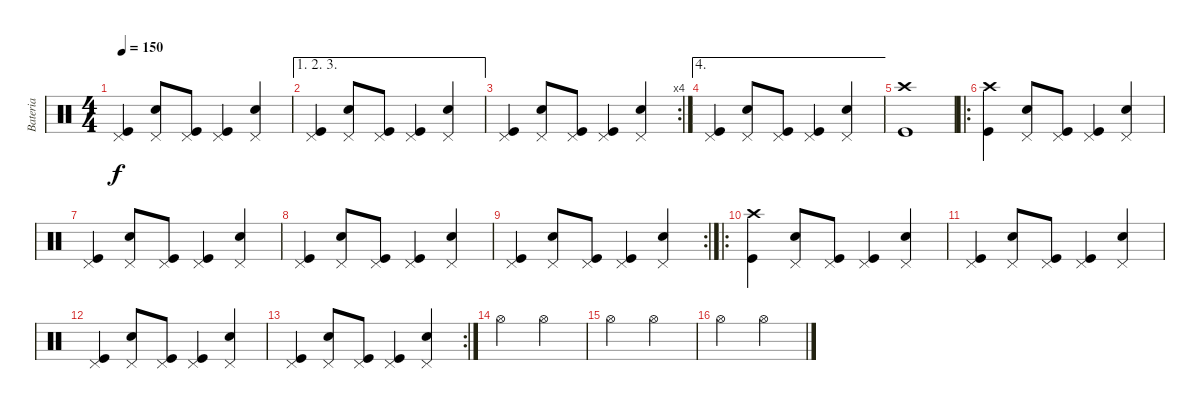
\track ("Bateria" "Bateria") {instrument percussion}
\staff {score}
\articulation defaults
\ts (4 4)
\tempo 150
\clef neutral
\ks c
("Pedal Hi-Hat (hit)" "Kick (hit)").4{dy f} ("Pedal Hi-Hat (hit)" "Snare (hit) 2").8 ("Pedal Hi-Hat (hit)" "Kick (hit)").8 ("Pedal Hi-Hat (hit)" "Kick (hit)").4 ("Pedal Hi-Hat (hit)" "Snare (hit) 2").4 |
\ae (1 2 3)
("Pedal Hi-Hat (hit)" "Kick (hit)").4 ("Pedal Hi-Hat (hit)" "Snare (hit) 2").8 ("Pedal Hi-Hat (hit)" "Kick (hit)").8 ("Pedal Hi-Hat (hit)" "Kick (hit)").4 ("Pedal Hi-Hat (hit)" "Snare (hit) 2").4 |
\rc 4
("Pedal Hi-Hat (hit)" "Kick (hit)").4 ("Pedal Hi-Hat (hit)" "Snare (hit) 2").8 ("Pedal Hi-Hat (hit)" "Kick (hit)").8 ("Pedal Hi-Hat (hit)" "Kick (hit)").4 ("Pedal Hi-Hat (hit)" "Snare (hit) 2").4 |
\ae 4
("Pedal Hi-Hat (hit)" "Kick (hit)").4 ("Pedal Hi-Hat (hit)" "Snare (hit) 2").8 ("Pedal Hi-Hat (hit)" "Kick (hit)").8 ("Pedal Hi-Hat (hit)" "Kick (hit)").4 ("Pedal Hi-Hat (hit)" "Snare (hit) 2").4 |
("Crash high (hit)" "Kick (hit)").1 |
\ro
("Crash high (hit)" "Kick (hit)").4 ("Pedal Hi-Hat (hit)" "Snare (hit) 2").8 ("Pedal Hi-Hat (hit)" "Kick (hit)").8 ("Pedal Hi-Hat (hit)" "Kick (hit)").4 ("Pedal Hi-Hat (hit)" "Snare (hit) 2").4 |
("Pedal Hi-Hat (hit)" "Kick (hit)").4 ("Pedal Hi-Hat (hit)" "Snare (hit) 2").8 ("Pedal Hi-Hat (hit)" "Kick (hit)").8 ("Pedal Hi-Hat (hit)" "Kick (hit)").4 ("Pedal Hi-Hat (hit)" "Snare (hit) 2").4 |
("Pedal Hi-Hat (hit)" "Kick (hit)").4 ("Pedal Hi-Hat (hit)" "Snare (hit) 2").8 ("Pedal Hi-Hat (hit)" "Kick (hit)").8 ("Pedal Hi-Hat (hit)" "Kick (hit)").4 ("Pedal Hi-Hat (hit)" "Snare (hit) 2").4 |
\rc 2
("Pedal Hi-Hat (hit)" "Kick (hit)").4 ("Pedal Hi-Hat (hit)" "Snare (hit) 2").8 ("Pedal Hi-Hat (hit)" "Kick (hit)").8 ("Pedal Hi-Hat (hit)" "Kick (hit)").4 ("Pedal Hi-Hat (hit)" "Snare (hit) 2").4 |
\ro
("Crash high (hit)" "Kick (hit)").4 ("Pedal Hi-Hat (hit)" "Snare (hit) 2").8 ("Pedal Hi-Hat (hit)" "Kick (hit)").8 ("Pedal Hi-Hat (hit)" "Kick (hit)").4 ("Pedal Hi-Hat (hit)" "Snare (hit) 2").4 |
("Pedal Hi-Hat (hit)" "Kick (hit)").4 ("Pedal Hi-Hat (hit)" "Snare (hit) 2").8 ("Pedal Hi-Hat (hit)" "Kick (hit)").8 ("Pedal Hi-Hat (hit)" "Kick (hit)").4 ("Pedal Hi-Hat (hit)" "Snare (hit) 2").4 |
("Pedal Hi-Hat (hit)" "Kick (hit)").4 ("Pedal Hi-Hat (hit)" "Snare (hit) 2").8 ("Pedal Hi-Hat (hit)" "Kick (hit)").8 ("Pedal Hi-Hat (hit)" "Kick (hit)").4 ("Pedal Hi-Hat (hit)" "Snare (hit) 2").4 |
\rc 2
("Pedal Hi-Hat (hit)" "Kick (hit)").4 ("Pedal Hi-Hat (hit)" "Snare (hit) 2").8 ("Pedal Hi-Hat (hit)" "Kick (hit)").8 ("Pedal Hi-Hat (hit)" "Kick (hit)").4 ("Pedal Hi-Hat (hit)" "Snare (hit) 2").4 |
"Hi-Hat (open)".2 "Hi-Hat (open)".2 |
"Hi-Hat (open)".2 "Hi-Hat (open)".2 |
"Hi-Hat (open)".2 "Hi-Hat (open)".2
